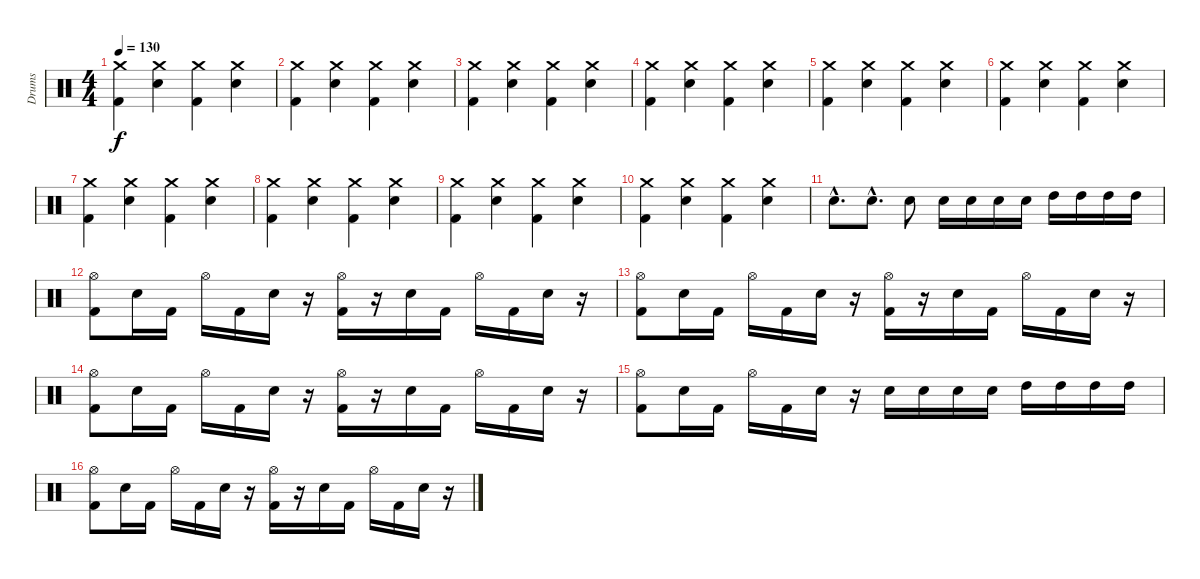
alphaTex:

\track ("Drums" "Drums") {instrument percussion}
\staff {score}
\articulation defaults
\ts (4 4)
\tempo 130
\clef neutral
\ks c
("Crash medium (hit)" "Kick (hit) 2").4{dy f} ("Crash medium (hit)" "Electric Snare (hit)").4 ("Crash medium (hit)" "Kick (hit) 2").4 ("Crash medium (hit)" "Electric Snare (hit)").4 |
("Crash medium (hit)" "Kick (hit) 2").4 ("Crash medium (hit)" "Electric Snare (hit)").4 ("Crash medium (hit)" "Kick (hit) 2").4 ("Crash medium (hit)" "Electric Snare (hit)").4 |
("Crash medium (hit)" "Kick (hit) 2").4 ("Crash medium (hit)" "Electric Snare (hit)").4 ("Crash medium (hit)" "Kick (hit) 2").4 ("Crash medium (hit)" "Electric Snare (hit)").4 |
("Crash medium (hit)" "Kick (hit) 2").4 ("Crash medium (hit)" "Electric Snare (hit)").4 ("Crash medium (hit)" "Kick (hit) 2").4 ("Crash medium (hit)" "Electric Snare (hit)").4 |
("Crash medium (hit)" "Kick (hit) 2").4 ("Crash medium (hit)" "Electric Snare (hit)").4 ("Crash medium (hit)" "Kick (hit) 2").4 ("Crash medium (hit)" "Electric Snare (hit)").4 |
("Crash medium (hit)" "Kick (hit) 2").4 ("Crash medium (hit)" "Electric Snare (hit)").4 ("Crash medium (hit)" "Kick (hit) 2").4 ("Crash medium (hit)" "Electric Snare (hit)").4 |
("Crash medium (hit)" "Kick (hit) 2").4 ("Crash medium (hit)" "Electric Snare (hit)").4 ("Crash medium (hit)" "Kick (hit) 2").4 ("Crash medium (hit)" "Electric Snare (hit)").4 |
("Crash medium (hit)" "Kick (hit) 2").4 ("Crash medium (hit)" "Electric Snare (hit)").4 ("Crash medium (hit)" "Kick (hit) 2").4 ("Crash medium (hit)" "Electric Snare (hit)").4 |
("Crash medium (hit)" "Kick (hit) 2").4 ("Crash medium (hit)" "Electric Snare (hit)").4 ("Crash medium (hit)" "Kick (hit) 2").4 ("Crash medium (hit)" "Electric Snare (hit)").4 |
("Crash medium (hit)" "Kick (hit) 2").4 ("Crash medium (hit)" "Electric Snare (hit)").4 ("Crash medium (hit)" "Kick (hit) 2").4 ("Crash medium (hit)" "Electric Snare (hit)").4 |
"Electric Snare (hit)"{hac}.8{d} "Electric Snare (hit)"{hac}.8{d} "Electric Snare (hit)".8 "Electric Snare (hit)".16 "Electric Snare (hit)".16 "Electric Snare (hit)".16 "Electric Snare (hit)".16 "High Tom (hit)".16 "High Tom (hit)".16 "High Tom (hit)".16 "High Tom (hit)".16 |
("Hi-Hat (open)" "Kick (hit) 2").8 "Electric Snare (hit)".16 "Kick (hit) 2".16 "Hi-Hat (open)".16 "Kick (hit) 2".16 "Electric Snare (hit)".16 r.16 ("Hi-Hat (open)" "Kick (hit) 2").16 r.16 "Electric Snare (hit)".16 "Kick (hit) 2".16 "Hi-Hat (open)".16 "Kick (hit) 2".16 "Electric Snare (hit)".16 r.16 |
("Hi-Hat (open)" "Kick (hit) 2").8 "Electric Snare (hit)".16 "Kick (hit) 2".16 "Hi-Hat (open)".16 "Kick (hit) 2".16 "Electric Snare (hit)".16 r.16 ("Hi-Hat (open)" "Kick (hit) 2").16 r.16 "Electric Snare (hit)".16 "Kick (hit) 2".16 "Hi-Hat (open)".16 "Kick (hit) 2".16 "Electric Snare (hit)".16 r.16 |
("Hi-Hat (open)" "Kick (hit) 2").8 "Electric Snare (hit)".16 "Kick (hit) 2".16 "Hi-Hat (open)".16 "Kick (hit) 2".16 "Electric Snare (hit)".16 r.16 ("Hi-Hat (open)" "Kick (hit) 2").16 r.16 "Electric Snare (hit)".16 "Kick (hit) 2".16 "Hi-Hat (open)".16 "Kick (hit) 2".16 "Electric Snare (hit)".16 r.16 |
("Hi-Hat (open)" "Kick (hit) 2").8 "Electric Snare (hit)".16 "Kick (hit) 2".16 "Hi-Hat (open)".16 "Kick (hit) 2".16 "Electric Snare (hit)".16 r.16 "Electric Snare (hit)".16 "Electric Snare (hit)".16 "Electric Snare (hit)".16 "Electric Snare (hit)".16 "High Tom (hit)".16 "High Tom (hit)".16 "High Tom (hit)".16 "High Tom (hit)".16 |
("Hi-Hat (open)" "Kick (hit) 2").8 "Electric Snare (hit)".16 "Kick (hit) 2".16 "Hi-Hat (open)".16 "Kick (hit) 2".16 "Electric Snare (hit)".16 r.16 ("Hi-Hat (open)" "Kick (hit) 2").16 r.16 "Electric Snare (hit)".16 "Kick (hit) 2".16 "Hi-Hat (open)".16 "Kick (hit) 2".16 "Electric Snare (hit)".16 r.16
